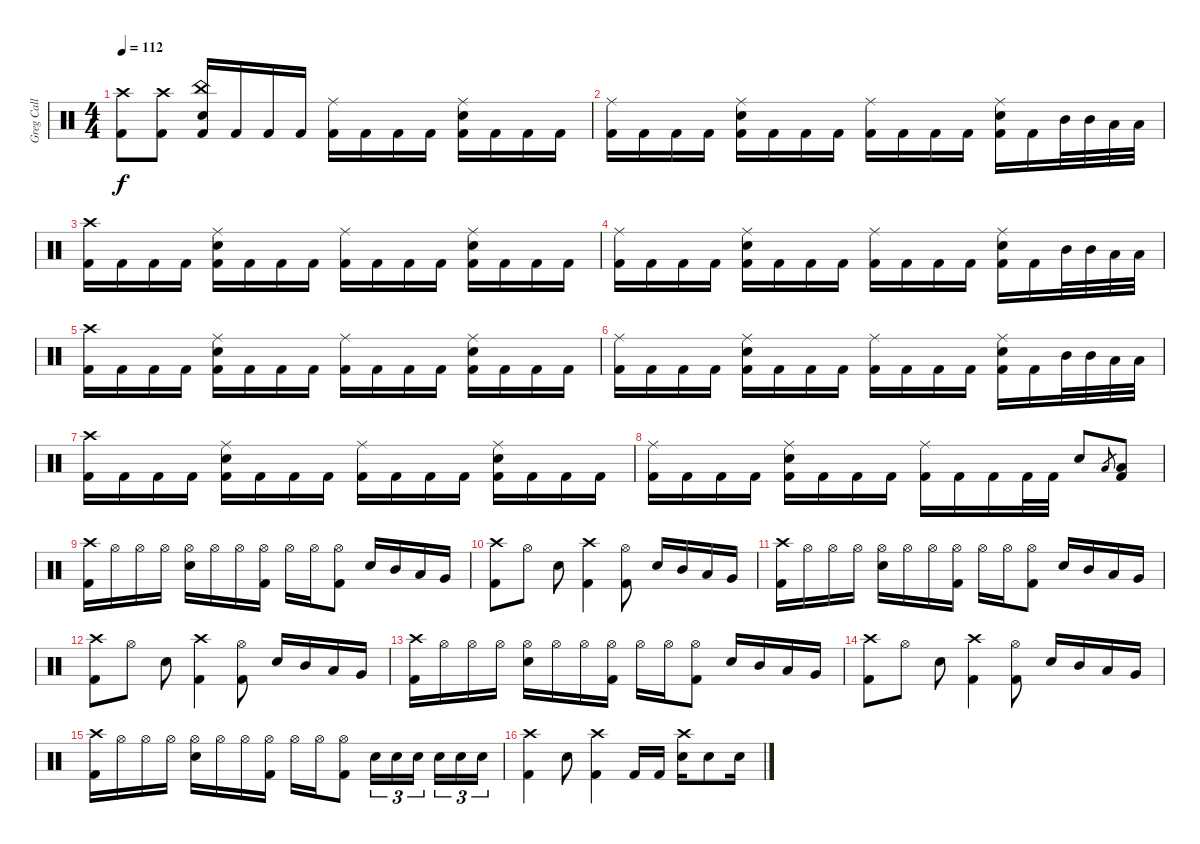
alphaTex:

\track ("Greg Call (Drums)" "Greg Call ") {instrument percussion}
\staff {score}
\articulation defaults
\ts (4 4)
\tempo 112
\clef neutral
\ks c
("Crash high (hit)" "Kick (hit) 2").8{dy f} ("Crash high (hit)" "Kick (hit) 2").8 ("China (hit)" "Snare (hit) 2" "Kick (hit) 2").16 "Kick (hit) 2".16 "Kick (hit) 2".16 "Kick (hit) 2".16 ("Ride (middle)" "Kick (hit) 2").16 "Kick (hit) 2".16 "Kick (hit) 2".16 "Kick (hit) 2".16 ("Ride (middle)" "Snare (hit) 2" "Kick (hit) 2").16 "Kick (hit) 2".16 "Kick (hit) 2".16 "Kick (hit) 2".16 |
("Ride (middle)" "Kick (hit) 2").16 "Kick (hit) 2".16 "Kick (hit) 2".16 "Kick (hit) 2".16 ("Ride (middle)" "Snare (hit) 2" "Kick (hit) 2").16 "Kick (hit) 2".16 "Kick (hit) 2".16 "Kick (hit) 2".16 ("Ride (middle)" "Kick (hit) 2").16 "Kick (hit) 2".16 "Kick (hit) 2".16 "Kick (hit) 2".16 ("Ride (middle)" "Snare (hit) 2" "Kick (hit) 2").16 "Kick (hit) 2".16 "Mid Tom (hit)".32 "Mid Tom (hit)".32 "Low Floor Tom (hit)".32 "Low Floor Tom (hit)".32 |
("Crash high (hit)" "Kick (hit) 2").16 "Kick (hit) 2".16 "Kick (hit) 2".16 "Kick (hit) 2".16 ("Ride (middle)" "Snare (hit) 2" "Kick (hit) 2").16 "Kick (hit) 2".16 "Kick (hit) 2".16 "Kick (hit) 2".16 ("Ride (middle)" "Kick (hit) 2").16 "Kick (hit) 2".16 "Kick (hit) 2".16 "Kick (hit) 2".16 ("Ride (middle)" "Snare (hit) 2" "Kick (hit) 2").16 "Kick (hit) 2".16 "Kick (hit) 2".16 "Kick (hit) 2".16 |
("Ride (middle)" "Kick (hit) 2").16 "Kick (hit) 2".16 "Kick (hit) 2".16 "Kick (hit) 2".16 ("Ride (middle)" "Snare (hit) 2" "Kick (hit) 2").16 "Kick (hit) 2".16 "Kick (hit) 2".16 "Kick (hit) 2".16 ("Ride (middle)" "Kick (hit) 2").16 "Kick (hit) 2".16 "Kick (hit) 2".16 "Kick (hit) 2".16 ("Ride (middle)" "Snare (hit) 2" "Kick (hit) 2").16 "Kick (hit) 2".16 "Mid Tom (hit)".32 "Mid Tom (hit)".32 "Low Floor Tom (hit)".32 "Low Floor Tom (hit)".32 |
("Crash high (hit)" "Kick (hit) 2").16 "Kick (hit) 2".16 "Kick (hit) 2".16 "Kick (hit) 2".16 ("Ride (middle)" "Snare (hit) 2" "Kick (hit) 2").16 "Kick (hit) 2".16 "Kick (hit) 2".16 "Kick (hit) 2".16 ("Ride (middle)" "Kick (hit) 2").16 "Kick (hit) 2".16 "Kick (hit) 2".16 "Kick (hit) 2".16 ("Ride (middle)" "Snare (hit) 2" "Kick (hit) 2").16 "Kick (hit) 2".16 "Kick (hit) 2".16 "Kick (hit) 2".16 |
("Ride (middle)" "Kick (hit) 2").16 "Kick (hit) 2".16 "Kick (hit) 2".16 "Kick (hit) 2".16 ("Ride (middle)" "Snare (hit) 2" "Kick (hit) 2").16 "Kick (hit) 2".16 "Kick (hit) 2".16 "Kick (hit) 2".16 ("Ride (middle)" "Kick (hit) 2").16 "Kick (hit) 2".16 "Kick (hit) 2".16 "Kick (hit) 2".16 ("Ride (middle)" "Snare (hit) 2" "Kick (hit) 2").16 "Kick (hit) 2".16 "Mid Tom (hit)".32 "Mid Tom (hit)".32 "Low Floor Tom (hit)".32 "Low Floor Tom (hit)".32 |
("Crash high (hit)" "Kick (hit) 2").16 "Kick (hit) 2".16 "Kick (hit) 2".16 "Kick (hit) 2".16 ("Ride (middle)" "Snare (hit) 2" "Kick (hit) 2").16 "Kick (hit) 2".16 "Kick (hit) 2".16 "Kick (hit) 2".16 ("Ride (middle)" "Kick (hit) 2").16 "Kick (hit) 2".16 "Kick (hit) 2".16 "Kick (hit) 2".16 ("Ride (middle)" "Snare (hit) 2" "Kick (hit) 2").16 "Kick (hit) 2".16 "Kick (hit) 2".16 "Kick (hit) 2".16 |
("Ride (middle)" "Kick (hit) 2").16 "Kick (hit) 2".16 "Kick (hit) 2".16 "Kick (hit) 2".16 ("Ride (middle)" "Snare (hit) 2" "Kick (hit) 2").16 "Kick (hit) 2".16 "Kick (hit) 2".16 "Kick (hit) 2".16 ("Ride (middle)" "Kick (hit) 2").16 "Kick (hit) 2".16 "Kick (hit) 2".16 "Kick (hit) 2".32 "Kick (hit) 2".32 "Snare (hit) 2".8 "Low Floor Tom (hit)".8{gr} ("Low Floor Tom (hit)" "Kick (hit) 2").8 |
("Crash high (hit)" "Kick (hit) 2").16 "Hi-Hat (open)".16 "Hi-Hat (open)".16 "Hi-Hat (open)".16 ("Hi-Hat (open)" "Snare (hit) 2").16 "Hi-Hat (open)".16 "Hi-Hat (open)".16 ("Hi-Hat (open)" "Kick (hit) 2").16 "Hi-Hat (open)".16 "Hi-Hat (open)".16 ("Hi-Hat (open)" "Kick (hit) 2").8 "Snare (hit) 2".16 "Mid Tom (hit)".16 "Low Tom (hit)".16 "Very Low Tom (hit)".16 |
("Crash high (hit)" "Kick (hit) 2").8 "Hi-Hat (open)".8 "Snare (hit) 2".8 ("Crash high (hit)" "Kick (hit) 2").4 ("Hi-Hat (open)" "Kick (hit) 2").8 "Snare (hit) 2".16 "Mid Tom (hit)".16 "Low Tom (hit)".16 "Very Low Tom (hit)".16 |
("Crash high (hit)" "Kick (hit) 2").16 "Hi-Hat (open)".16 "Hi-Hat (open)".16 "Hi-Hat (open)".16 ("Hi-Hat (open)" "Snare (hit) 2").16 "Hi-Hat (open)".16 "Hi-Hat (open)".16 ("Hi-Hat (open)" "Kick (hit) 2").16 "Hi-Hat (open)".16 "Hi-Hat (open)".16 ("Hi-Hat (open)" "Kick (hit) 2").8 "Snare (hit) 2".16 "Mid Tom (hit)".16 "Low Tom (hit)".16 "Very Low Tom (hit)".16 |
("Crash high (hit)" "Kick (hit) 2").8 "Hi-Hat (open)".8 "Snare (hit) 2".8 ("Crash high (hit)" "Kick (hit) 2").4 ("Hi-Hat (open)" "Kick (hit) 2").8 "Snare (hit) 2".16 "Mid Tom (hit)".16 "Low Tom (hit)".16 "Very Low Tom (hit)".16 |
("Crash high (hit)" "Kick (hit) 2").16 "Hi-Hat (open)".16 "Hi-Hat (open)".16 "Hi-Hat (open)".16 ("Hi-Hat (open)" "Snare (hit) 2").16 "Hi-Hat (open)".16 "Hi-Hat (open)".16 ("Hi-Hat (open)" "Kick (hit) 2").16 "Hi-Hat (open)".16 "Hi-Hat (open)".16 ("Hi-Hat (open)" "Kick (hit) 2").8 "Snare (hit) 2".16 "Mid Tom (hit)".16 "Low Tom (hit)".16 "Very Low Tom (hit)".16 |
("Crash high (hit)" "Kick (hit) 2").8 "Hi-Hat (open)".8 "Snare (hit) 2".8 ("Crash high (hit)" "Kick (hit) 2").4 ("Hi-Hat (open)" "Kick (hit) 2").8 "Snare (hit) 2".16 "Mid Tom (hit)".16 "Low Tom (hit)".16 "Very Low Tom (hit)".16 |
("Crash high (hit)" "Kick (hit) 2").16 "Hi-Hat (open)".16 "Hi-Hat (open)".16 "Hi-Hat (open)".16 ("Hi-Hat (open)" "Snare (hit) 2").16 "Hi-Hat (open)".16 "Hi-Hat (open)".16 ("Hi-Hat (open)" "Kick (hit) 2").16 "Hi-Hat (open)".16 "Hi-Hat (open)".16 ("Hi-Hat (open)" "Kick (hit) 2").8 "Snare (hit) 2".16{tu (3 2)} "Snare (hit) 2".16{tu (3 2)} "Snare (hit) 2".16{tu (3 2)} "Snare (hit) 2".16{tu (3 2)} "Snare (hit) 2".16{tu (3 2)} "Snare (hit) 2".16{tu (3 2)} |
("Crash high (hit)" "Kick (hit) 2").4 "Snare (hit) 2".8 ("Crash high (hit)" "Kick (hit) 2").4 "Kick (hit) 2".16 "Kick (hit) 2".16 ("Crash high (hit)" "Snare (hit) 2").16 "Snare (hit) 2".8 "Snare (hit) 2".16
